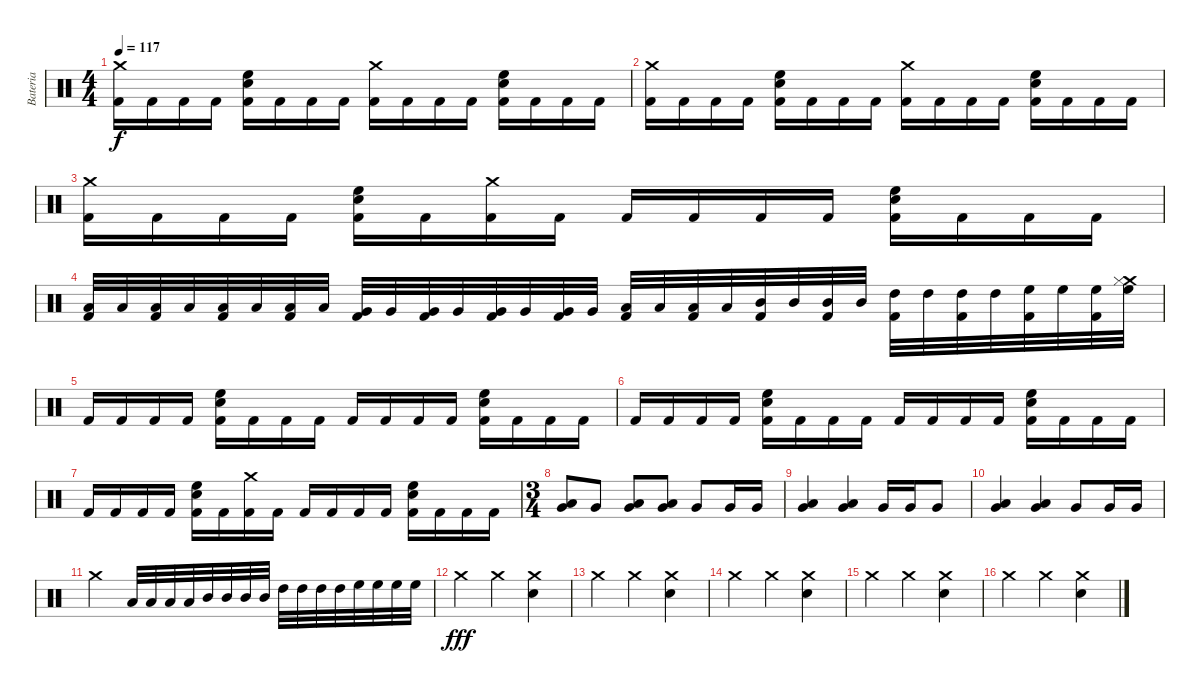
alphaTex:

\track ("Bateria" "Bateria") {instrument percussion}
\staff {score}
\articulation defaults
\ts (4 4)
\tempo 117
\clef neutral
\ks c
("Crash medium (hit)" "Kick (hit) 2").16{dy f} "Kick (hit) 2".16 "Kick (hit) 2".16 "Kick (hit) 2".16 ("Snare (hit) 2" "High Floor Tom (hit)" "Kick (hit) 2").16 "Kick (hit) 2".16 "Kick (hit) 2".16 "Kick (hit) 2".16 ("Crash medium (hit)" "Kick (hit) 2").16 "Kick (hit) 2".16 "Kick (hit) 2".16 "Kick (hit) 2".16 ("Snare (hit) 2" "High Floor Tom (hit)" "Kick (hit) 2").16 "Kick (hit) 2".16 "Kick (hit) 2".16 "Kick (hit) 2".16 |
("Crash medium (hit)" "Kick (hit) 2").16 "Kick (hit) 2".16 "Kick (hit) 2".16 "Kick (hit) 2".16 ("Snare (hit) 2" "High Floor Tom (hit)" "Kick (hit) 2").16 "Kick (hit) 2".16 "Kick (hit) 2".16 "Kick (hit) 2".16 ("Crash medium (hit)" "Kick (hit) 2").16 "Kick (hit) 2".16 "Kick (hit) 2".16 "Kick (hit) 2".16 ("Snare (hit) 2" "High Floor Tom (hit)" "Kick (hit) 2").16 "Kick (hit) 2".16 "Kick (hit) 2".16 "Kick (hit) 2".16 |
("Crash medium (hit)" "Kick (hit) 2").16 "Kick (hit) 2".16 "Kick (hit) 2".16 "Kick (hit) 2".16 ("Snare (hit) 2" "High Floor Tom (hit)" "Kick (hit) 2").16 "Kick (hit) 2".16 ("Crash medium (hit)" "Kick (hit) 2").16 "Kick (hit) 2".16 "Kick (hit) 2".16 "Kick (hit) 2".16 "Kick (hit) 2".16 "Kick (hit) 2".16 ("Snare (hit) 2" "High Floor Tom (hit)" "Kick (hit) 2").16 "Kick (hit) 2".16 "Kick (hit) 2".16 "Kick (hit) 2".16 |
("Low Floor Tom (hit)" "Kick (hit) 2").32 "Low Floor Tom (hit)".32 ("Low Floor Tom (hit)" "Kick (hit) 2").32 "Low Floor Tom (hit)".32 ("Low Floor Tom (hit)" "Kick (hit) 2").32 "Low Floor Tom (hit)".32 ("Low Floor Tom (hit)" "Kick (hit) 2").32 "Low Floor Tom (hit)".32 ("Very Low Tom (hit)" "Kick (hit) 2").32 "Very Low Tom (hit)".32 ("Very Low Tom (hit)" "Kick (hit) 2").32 "Very Low Tom (hit)".32 ("Very Low Tom (hit)" "Kick (hit) 2").32 "Very Low Tom (hit)".32 ("Very Low Tom (hit)" "Kick (hit) 2").32 "Very Low Tom (hit)".32 ("Low Tom (hit)" "Kick (hit) 2").32 "Low Tom (hit)".32 ("Low Tom (hit)" "Kick (hit) 2").32 "Low Tom (hit)".32 ("Mid Tom (hit)" "Kick (hit) 2").32 "Mid Tom (hit)".32 ("Mid Tom (hit)" "Kick (hit) 2").32 "Mid Tom (hit)".32 ("High Tom (hit)" "Kick (hit) 2").32 "High Tom (hit)".32 ("High Tom (hit)" "Kick (hit) 2").32 "High Tom (hit)".32 ("High Floor Tom (hit)" "Kick (hit) 2").32 "High Floor Tom (hit)".32 ("High Floor Tom (hit)" "Kick (hit) 2").32 ("Crash medium (hit)" "High Floor Tom (hit)" "Hi-Hat (closed)").32 |
"Kick (hit) 2".16 "Kick (hit) 2".16 "Kick (hit) 2".16 "Kick (hit) 2".16 ("Snare (hit) 2" "High Floor Tom (hit)" "Kick (hit) 2").16 "Kick (hit) 2".16 "Kick (hit) 2".16 "Kick (hit) 2".16 "Kick (hit) 2".16 "Kick (hit) 2".16 "Kick (hit) 2".16 "Kick (hit) 2".16 ("Snare (hit) 2" "High Floor Tom (hit)" "Kick (hit) 2").16 "Kick (hit) 2".16 "Kick (hit) 2".16 "Kick (hit) 2".16 |
"Kick (hit) 2".16 "Kick (hit) 2".16 "Kick (hit) 2".16 "Kick (hit) 2".16 ("Snare (hit) 2" "High Floor Tom (hit)" "Kick (hit) 2").16 "Kick (hit) 2".16 "Kick (hit) 2".16 "Kick (hit) 2".16 "Kick (hit) 2".16 "Kick (hit) 2".16 "Kick (hit) 2".16 "Kick (hit) 2".16 ("Snare (hit) 2" "High Floor Tom (hit)" "Kick (hit) 2").16 "Kick (hit) 2".16 "Kick (hit) 2".16 "Kick (hit) 2".16 |
"Kick (hit) 2".16 "Kick (hit) 2".16 "Kick (hit) 2".16 "Kick (hit) 2".16 ("Snare (hit) 2" "High Floor Tom (hit)" "Kick (hit) 2").16 "Kick (hit) 2".16 ("Crash medium (hit)" "Kick (hit) 2").16 "Kick (hit) 2".16 "Kick (hit) 2".16 "Kick (hit) 2".16 "Kick (hit) 2".16 "Kick (hit) 2".16 ("Snare (hit) 2" "High Floor Tom (hit)" "Kick (hit) 2").16 "Kick (hit) 2".16 "Kick (hit) 2".16 "Kick (hit) 2".16 |
\ts (3 4)
("Low Tom (hit)" "Very Low Tom (hit)").8 "Very Low Tom (hit)".8 ("Low Tom (hit)" "Very Low Tom (hit)").8 ("Low Tom (hit)" "Very Low Tom (hit)").8 "Very Low Tom (hit)".8 "Very Low Tom (hit)".16 "Very Low Tom (hit)".16 |
("Low Tom (hit)" "Very Low Tom (hit)").4 ("Low Tom (hit)" "Very Low Tom (hit)").4 "Very Low Tom (hit)".16 "Very Low Tom (hit)".16 "Very Low Tom (hit)".8 |
("Low Tom (hit)" "Very Low Tom (hit)").4 ("Low Tom (hit)" "Very Low Tom (hit)").4 "Very Low Tom (hit)".8 "Very Low Tom (hit)".16 "Very Low Tom (hit)".16 |
"Crash medium (hit)".4 "Low Tom (hit)".32 "Low Tom (hit)".32 "Low Tom (hit)".32 "Low Tom (hit)".32 "Mid Tom (hit)".32 "Mid Tom (hit)".32 "Mid Tom (hit)".32 "Mid Tom (hit)".32 "High Tom (hit)".32 "High Tom (hit)".32 "High Tom (hit)".32 "High Tom (hit)".32 "High Floor Tom (hit)".32 "High Floor Tom (hit)".32 "High Floor Tom (hit)".32 "High Floor Tom (hit)".32 |
"Crash medium (hit)".4{dy fff} "Crash medium (hit)".4 ("Crash medium (hit)" "Snare (hit) 2").4 |
"Crash medium (hit)".4 "Crash medium (hit)".4 ("Crash medium (hit)" "Snare (hit) 2").4 |
"Crash medium (hit)".4 "Crash medium (hit)".4 ("Crash medium (hit)" "Snare (hit) 2").4 |
"Crash medium (hit)".4 "Crash medium (hit)".4 ("Crash medium (hit)" "Snare (hit) 2").4 |
"Crash medium (hit)".4 "Crash medium (hit)".4 ("Crash medium (hit)" "Snare (hit) 2").4
